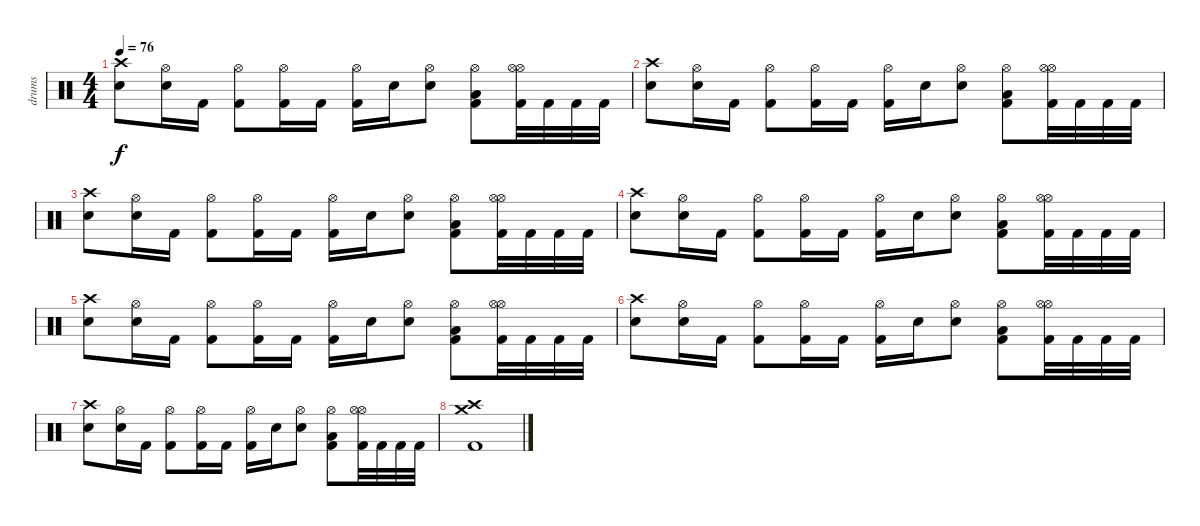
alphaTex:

\track ("drums" "drums") {instrument percussion}
\staff {score}
\articulation defaults
\ts (4 4)
\tempo 76
\clef neutral
\ks c
("Crash high (hit)" "Electric Snare (hit)").8{dy f} ("Hi-Hat (open)" "Electric Snare (hit)").16 "Kick (hit) 2".16 ("Hi-Hat (open)" "Kick (hit) 2").8 ("Hi-Hat (open)" "Kick (hit) 2").16 "Kick (hit) 2".16 ("Hi-Hat (open)" "Kick (hit) 2").16 "Electric Snare (hit)".16 ("Hi-Hat (open)" "Electric Snare (hit)").8 ("Hi-Hat (open)" "Low Floor Tom (hit)" "Kick (hit) 2").8 ("Hi-Hat (open)" "Hi-Hat (open)" "Kick (hit) 2").32 "Kick (hit) 2".32 "Kick (hit) 2".32 "Kick (hit) 2".32 |
("Crash high (hit)" "Electric Snare (hit)").8 ("Hi-Hat (open)" "Electric Snare (hit)").16 "Kick (hit) 2".16 ("Hi-Hat (open)" "Kick (hit) 2").8 ("Hi-Hat (open)" "Kick (hit) 2").16 "Kick (hit) 2".16 ("Hi-Hat (open)" "Kick (hit) 2").16 "Electric Snare (hit)".16 ("Hi-Hat (open)" "Electric Snare (hit)").8 ("Hi-Hat (open)" "Low Floor Tom (hit)" "Kick (hit) 2").8 ("Hi-Hat (open)" "Hi-Hat (open)" "Kick (hit) 2").32 "Kick (hit) 2".32 "Kick (hit) 2".32 "Kick (hit) 2".32 |
("Crash high (hit)" "Electric Snare (hit)").8 ("Hi-Hat (open)" "Electric Snare (hit)").16 "Kick (hit) 2".16 ("Hi-Hat (open)" "Kick (hit) 2").8 ("Hi-Hat (open)" "Kick (hit) 2").16 "Kick (hit) 2".16 ("Hi-Hat (open)" "Kick (hit) 2").16 "Electric Snare (hit)".16 ("Hi-Hat (open)" "Electric Snare (hit)").8 ("Hi-Hat (open)" "Low Floor Tom (hit)" "Kick (hit) 2").8 ("Hi-Hat (open)" "Hi-Hat (open)" "Kick (hit) 2").32 "Kick (hit) 2".32 "Kick (hit) 2".32 "Kick (hit) 2".32 |
("Crash high (hit)" "Electric Snare (hit)").8 ("Hi-Hat (open)" "Electric Snare (hit)").16 "Kick (hit) 2".16 ("Hi-Hat (open)" "Kick (hit) 2").8 ("Hi-Hat (open)" "Kick (hit) 2").16 "Kick (hit) 2".16 ("Hi-Hat (open)" "Kick (hit) 2").16 "Electric Snare (hit)".16 ("Hi-Hat (open)" "Electric Snare (hit)").8 ("Hi-Hat (open)" "Low Floor Tom (hit)" "Kick (hit) 2").8 ("Hi-Hat (open)" "Hi-Hat (open)" "Kick (hit) 2").32 "Kick (hit) 2".32 "Kick (hit) 2".32 "Kick (hit) 2".32 |
("Crash high (hit)" "Electric Snare (hit)").8 ("Hi-Hat (open)" "Electric Snare (hit)").16 "Kick (hit) 2".16 ("Hi-Hat (open)" "Kick (hit) 2").8 ("Hi-Hat (open)" "Kick (hit) 2").16 "Kick (hit) 2".16 ("Hi-Hat (open)" "Kick (hit) 2").16 "Electric Snare (hit)".16 ("Hi-Hat (open)" "Electric Snare (hit)").8 ("Hi-Hat (open)" "Low Floor Tom (hit)" "Kick (hit) 2").8 ("Hi-Hat (open)" "Hi-Hat (open)" "Kick (hit) 2").32 "Kick (hit) 2".32 "Kick (hit) 2".32 "Kick (hit) 2".32 |
("Crash high (hit)" "Electric Snare (hit)").8 ("Hi-Hat (open)" "Electric Snare (hit)").16 "Kick (hit) 2".16 ("Hi-Hat (open)" "Kick (hit) 2").8 ("Hi-Hat (open)" "Kick (hit) 2").16 "Kick (hit) 2".16 ("Hi-Hat (open)" "Kick (hit) 2").16 "Electric Snare (hit)".16 ("Hi-Hat (open)" "Electric Snare (hit)").8 ("Hi-Hat (open)" "Low Floor Tom (hit)" "Kick (hit) 2").8 ("Hi-Hat (open)" "Hi-Hat (open)" "Kick (hit) 2").32 "Kick (hit) 2".32 "Kick (hit) 2".32 "Kick (hit) 2".32 |
("Crash high (hit)" "Electric Snare (hit)").8 ("Hi-Hat (open)" "Electric Snare (hit)").16 "Kick (hit) 2".16 ("Hi-Hat (open)" "Kick (hit) 2").8 ("Hi-Hat (open)" "Kick (hit) 2").16 "Kick (hit) 2".16 ("Hi-Hat (open)" "Kick (hit) 2").16 "Electric Snare (hit)".16 ("Hi-Hat (open)" "Electric Snare (hit)").8 ("Hi-Hat (open)" "Low Floor Tom (hit)" "Kick (hit) 2").8 ("Hi-Hat (open)" "Hi-Hat (open)" "Kick (hit) 2").32 "Kick (hit) 2".32 "Kick (hit) 2".32 "Kick (hit) 2".32 |
("Crash high (hit)" "Crash medium (hit)" "Kick (hit) 2").1
